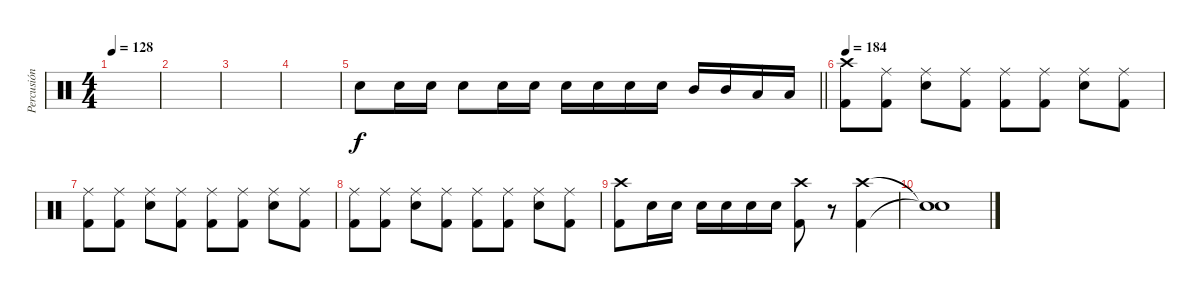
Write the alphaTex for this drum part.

\track ("Percusión" "Percusión") {instrument percussion}
\staff {score}
\articulation defaults
\ts (4 4)
\tempo 128
\clef neutral
\ks c
|
|
|
|
\barLineRight lightlight "Electric Snare (hit)".8 "Electric Snare (hit)".16 "Electric Snare (hit)".16 "Electric Snare (hit)".8 "Electric Snare (hit)".16 "Electric Snare (hit)".16 "Electric Snare (hit)".16 "Electric Snare (hit)".16 "Electric Snare (hit)".16 "Electric Snare (hit)".16 "Mid Tom (hit)".16 "Mid Tom (hit)".16 "Low Tom (hit)".16 "Low Tom (hit)".16
|
\tempo 184
("Crash high (hit)" "Kick (hit) 2").8 ("Ride (middle)" "Kick (hit) 2").8 ("Ride (middle)" "Electric Snare (hit)").8 ("Ride (middle)" "Kick (hit) 2").8 ("Ride (middle)" "Kick (hit) 2").8 ("Ride (middle)" "Kick (hit) 2").8 ("Ride (middle)" "Electric Snare (hit)").8 ("Ride (middle)" "Kick (hit) 2").8 |
("Ride (middle)" "Kick (hit) 2").8 ("Ride (middle)" "Kick (hit) 2").8 ("Ride (middle)" "Electric Snare (hit)").8 ("Ride (middle)" "Kick (hit) 2").8 ("Ride (middle)" "Kick (hit) 2").8 ("Ride (middle)" "Kick (hit) 2").8 ("Ride (middle)" "Electric Snare (hit)").8 ("Ride (middle)" "Kick (hit) 2").8 |
("Ride (middle)" "Kick (hit) 2").8 ("Ride (middle)" "Kick (hit) 2").8 ("Ride (middle)" "Electric Snare (hit)").8 ("Ride (middle)" "Kick (hit) 2").8 ("Ride (middle)" "Kick (hit) 2").8 ("Ride (middle)" "Kick (hit) 2").8 ("Ride (middle)" "Electric Snare (hit)").8 ("Ride (middle)" "Kick (hit) 2").8 |
("Crash high (hit)" "Kick (hit) 2").8 "Electric Snare (hit)".16 "Electric Snare (hit)".16 "Electric Snare (hit)".16 "Electric Snare (hit)".16 "Electric Snare (hit)".16 "Electric Snare (hit)".16 ("Crash high (hit)" "Kick (hit) 2").8 r.8 ("Crash high (hit)" "Kick (hit) 2").4 |
("Snare (hit)"{t} "Snare (hit)"{t}).1
